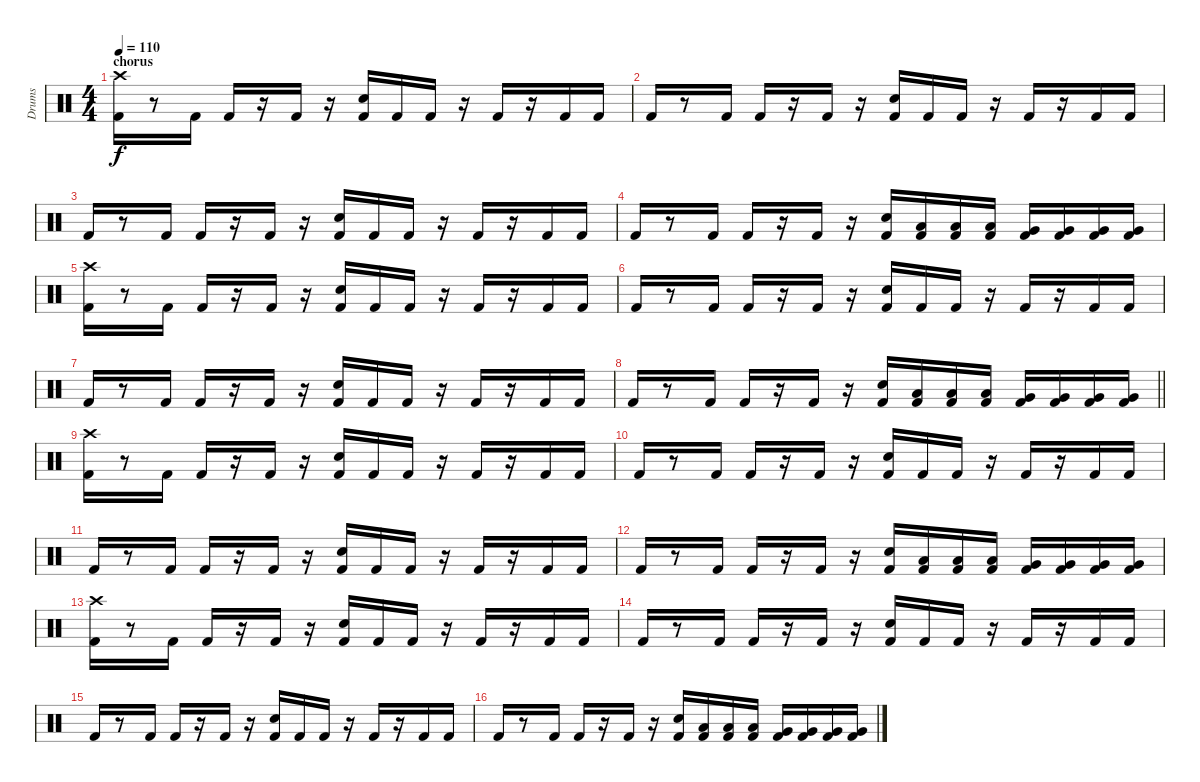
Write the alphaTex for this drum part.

\track ("Drums" "Drums") {instrument percussion}
\staff {score}
\articulation defaults
\ts (4 4)
\section ("" "chorus")
\tempo 110
\clef neutral
\ks c
("Crash high (hit)" "Kick (hit) 2").16{dy f} r.8 "Kick (hit) 2".16 "Kick (hit) 2".16 r.16 "Kick (hit) 2".16 r.16 ("Electric Snare (hit)" "Kick (hit) 2").16 "Kick (hit) 2".16 "Kick (hit) 2".16 r.16 "Kick (hit) 2".16 r.16 "Kick (hit) 2".16 "Kick (hit) 2".16 |
"Kick (hit) 2".16 r.8 "Kick (hit) 2".16 "Kick (hit) 2".16 r.16 "Kick (hit) 2".16 r.16 ("Electric Snare (hit)" "Kick (hit) 2").16 "Kick (hit) 2".16 "Kick (hit) 2".16 r.16 "Kick (hit) 2".16 r.16 "Kick (hit) 2".16 "Kick (hit) 2".16 |
"Kick (hit) 2".16 r.8 "Kick (hit) 2".16 "Kick (hit) 2".16 r.16 "Kick (hit) 2".16 r.16 ("Electric Snare (hit)" "Kick (hit) 2").16 "Kick (hit) 2".16 "Kick (hit) 2".16 r.16 "Kick (hit) 2".16 r.16 "Kick (hit) 2".16 "Kick (hit) 2".16 |
"Kick (hit) 2".16 r.8 "Kick (hit) 2".16 "Kick (hit) 2".16 r.16 "Kick (hit) 2".16 r.16 ("Electric Snare (hit)" "Kick (hit) 2").16 ("Low Tom (hit)" "Kick (hit) 2").16 ("Low Tom (hit)" "Kick (hit) 2").16 ("Low Tom (hit)" "Kick (hit) 2").16 ("Very Low Tom (hit)" "Kick (hit) 2").16 ("Very Low Tom (hit)" "Kick (hit) 2").16 ("Very Low Tom (hit)" "Kick (hit) 2").16 ("Very Low Tom (hit)" "Kick (hit) 2").16 |
("Crash high (hit)" "Kick (hit) 2").16 r.8 "Kick (hit) 2".16 "Kick (hit) 2".16 r.16 "Kick (hit) 2".16 r.16 ("Electric Snare (hit)" "Kick (hit) 2").16 "Kick (hit) 2".16 "Kick (hit) 2".16 r.16 "Kick (hit) 2".16 r.16 "Kick (hit) 2".16 "Kick (hit) 2".16 |
"Kick (hit) 2".16 r.8 "Kick (hit) 2".16 "Kick (hit) 2".16 r.16 "Kick (hit) 2".16 r.16 ("Electric Snare (hit)" "Kick (hit) 2").16 "Kick (hit) 2".16 "Kick (hit) 2".16 r.16 "Kick (hit) 2".16 r.16 "Kick (hit) 2".16 "Kick (hit) 2".16 |
"Kick (hit) 2".16 r.8 "Kick (hit) 2".16 "Kick (hit) 2".16 r.16 "Kick (hit) 2".16 r.16 ("Electric Snare (hit)" "Kick (hit) 2").16 "Kick (hit) 2".16 "Kick (hit) 2".16 r.16 "Kick (hit) 2".16 r.16 "Kick (hit) 2".16 "Kick (hit) 2".16 |
\barLineRight lightlight "Kick (hit) 2".16
r.8 "Kick (hit) 2".16 "Kick (hit) 2".16 r.16 "Kick (hit) 2".16 r.16 ("Electric Snare (hit)" "Kick (hit) 2").16 ("Low Tom (hit)" "Kick (hit) 2").16 ("Low Tom (hit)" "Kick (hit) 2").16 ("Low Tom (hit)" "Kick (hit) 2").16 ("Very Low Tom (hit)" "Kick (hit) 2").16 ("Very Low Tom (hit)" "Kick (hit) 2").16 ("Very Low Tom (hit)" "Kick (hit) 2").16 ("Very Low Tom (hit)" "Kick (hit) 2").16 |
("Crash high (hit)" "Kick (hit) 2").16 r.8 "Kick (hit) 2".16 "Kick (hit) 2".16 r.16 "Kick (hit) 2".16 r.16 ("Electric Snare (hit)" "Kick (hit) 2").16 "Kick (hit) 2".16 "Kick (hit) 2".16 r.16 "Kick (hit) 2".16 r.16 "Kick (hit) 2".16 "Kick (hit) 2".16 |
"Kick (hit) 2".16 r.8 "Kick (hit) 2".16 "Kick (hit) 2".16 r.16 "Kick (hit) 2".16 r.16 ("Electric Snare (hit)" "Kick (hit) 2").16 "Kick (hit) 2".16 "Kick (hit) 2".16 r.16 "Kick (hit) 2".16 r.16 "Kick (hit) 2".16 "Kick (hit) 2".16 |
"Kick (hit) 2".16 r.8 "Kick (hit) 2".16 "Kick (hit) 2".16 r.16 "Kick (hit) 2".16 r.16 ("Electric Snare (hit)" "Kick (hit) 2").16 "Kick (hit) 2".16 "Kick (hit) 2".16 r.16 "Kick (hit) 2".16 r.16 "Kick (hit) 2".16 "Kick (hit) 2".16 |
"Kick (hit) 2".16 r.8 "Kick (hit) 2".16 "Kick (hit) 2".16 r.16 "Kick (hit) 2".16 r.16 ("Electric Snare (hit)" "Kick (hit) 2").16 ("Low Tom (hit)" "Kick (hit) 2").16 ("Low Tom (hit)" "Kick (hit) 2").16 ("Low Tom (hit)" "Kick (hit) 2").16 ("Very Low Tom (hit)" "Kick (hit) 2").16 ("Very Low Tom (hit)" "Kick (hit) 2").16 ("Very Low Tom (hit)" "Kick (hit) 2").16 ("Very Low Tom (hit)" "Kick (hit) 2").16 |
("Crash high (hit)" "Kick (hit) 2").16 r.8 "Kick (hit) 2".16 "Kick (hit) 2".16 r.16 "Kick (hit) 2".16 r.16 ("Electric Snare (hit)" "Kick (hit) 2").16 "Kick (hit) 2".16 "Kick (hit) 2".16 r.16 "Kick (hit) 2".16 r.16 "Kick (hit) 2".16 "Kick (hit) 2".16 |
"Kick (hit) 2".16 r.8 "Kick (hit) 2".16 "Kick (hit) 2".16 r.16 "Kick (hit) 2".16 r.16 ("Electric Snare (hit)" "Kick (hit) 2").16 "Kick (hit) 2".16 "Kick (hit) 2".16 r.16 "Kick (hit) 2".16 r.16 "Kick (hit) 2".16 "Kick (hit) 2".16 |
"Kick (hit) 2".16 r.8 "Kick (hit) 2".16 "Kick (hit) 2".16 r.16 "Kick (hit) 2".16 r.16 ("Electric Snare (hit)" "Kick (hit) 2").16 "Kick (hit) 2".16 "Kick (hit) 2".16 r.16 "Kick (hit) 2".16 r.16 "Kick (hit) 2".16 "Kick (hit) 2".16 |
"Kick (hit) 2".16 r.8 "Kick (hit) 2".16 "Kick (hit) 2".16 r.16 "Kick (hit) 2".16 r.16 ("Electric Snare (hit)" "Kick (hit) 2").16 ("Low Tom (hit)" "Kick (hit) 2").16 ("Low Tom (hit)" "Kick (hit) 2").16 ("Low Tom (hit)" "Kick (hit) 2").16 ("Very Low Tom (hit)" "Kick (hit) 2").16 ("Very Low Tom (hit)" "Kick (hit) 2").16 ("Very Low Tom (hit)" "Kick (hit) 2").16 ("Very Low Tom (hit)" "Kick (hit) 2").16
